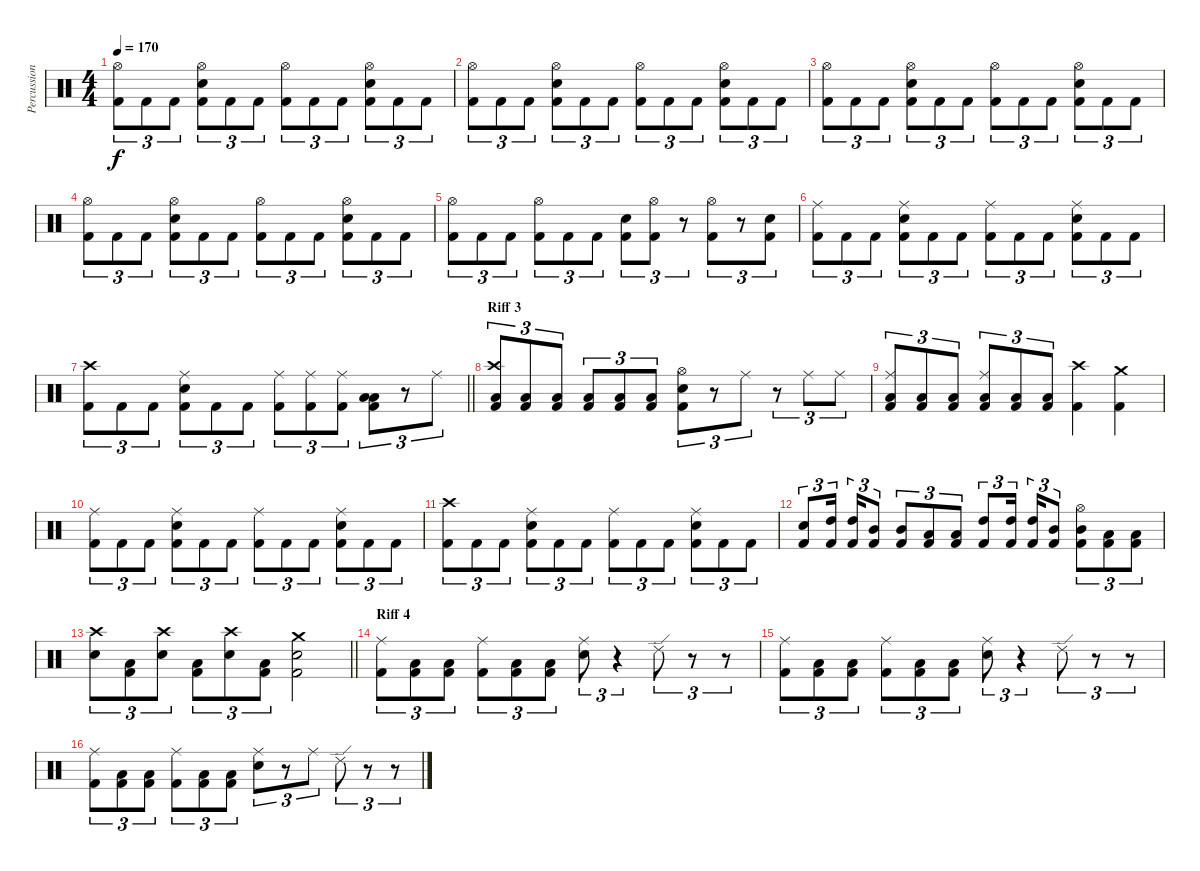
\track ("Percussions" "Percussion") {instrument percussion}
\staff {score}
\articulation defaults
\ts (4 4)
\tempo 170
\clef neutral
\ks c
("Hi-Hat (open)" "Kick (hit) 2").8{tu (3 2) dy f} "Kick (hit) 2".8{tu (3 2)} "Kick (hit) 2".8{tu (3 2)} ("Hi-Hat (open)" "Snare (hit) 2" "Kick (hit) 2").8{tu (3 2)} "Kick (hit) 2".8{tu (3 2)} "Kick (hit) 2".8{tu (3 2)} ("Hi-Hat (open)" "Kick (hit) 2").8{tu (3 2)} "Kick (hit) 2".8{tu (3 2)} "Kick (hit) 2".8{tu (3 2)} ("Hi-Hat (open)" "Snare (hit) 2" "Kick (hit) 2").8{tu (3 2)} "Kick (hit) 2".8{tu (3 2)} "Kick (hit) 2".8{tu (3 2)} |
("Hi-Hat (open)" "Kick (hit) 2").8{tu (3 2)} "Kick (hit) 2".8{tu (3 2)} "Kick (hit) 2".8{tu (3 2)} ("Hi-Hat (open)" "Snare (hit) 2" "Kick (hit) 2").8{tu (3 2)} "Kick (hit) 2".8{tu (3 2)} "Kick (hit) 2".8{tu (3 2)} ("Hi-Hat (open)" "Kick (hit) 2").8{tu (3 2)} "Kick (hit) 2".8{tu (3 2)} "Kick (hit) 2".8{tu (3 2)} ("Hi-Hat (open)" "Snare (hit) 2" "Kick (hit) 2").8{tu (3 2)} "Kick (hit) 2".8{tu (3 2)} "Kick (hit) 2".8{tu (3 2)} |
("Hi-Hat (open)" "Kick (hit) 2").8{tu (3 2)} "Kick (hit) 2".8{tu (3 2)} "Kick (hit) 2".8{tu (3 2)} ("Hi-Hat (open)" "Snare (hit) 2" "Kick (hit) 2").8{tu (3 2)} "Kick (hit) 2".8{tu (3 2)} "Kick (hit) 2".8{tu (3 2)} ("Hi-Hat (open)" "Kick (hit) 2").8{tu (3 2)} "Kick (hit) 2".8{tu (3 2)} "Kick (hit) 2".8{tu (3 2)} ("Hi-Hat (open)" "Snare (hit) 2" "Kick (hit) 2").8{tu (3 2)} "Kick (hit) 2".8{tu (3 2)} "Kick (hit) 2".8{tu (3 2)} |
("Hi-Hat (open)" "Kick (hit) 2").8{tu (3 2)} "Kick (hit) 2".8{tu (3 2)} "Kick (hit) 2".8{tu (3 2)} ("Hi-Hat (open)" "Snare (hit) 2" "Kick (hit) 2").8{tu (3 2)} "Kick (hit) 2".8{tu (3 2)} "Kick (hit) 2".8{tu (3 2)} ("Hi-Hat (open)" "Kick (hit) 2").8{tu (3 2)} "Kick (hit) 2".8{tu (3 2)} "Kick (hit) 2".8{tu (3 2)} ("Hi-Hat (open)" "Snare (hit) 2" "Kick (hit) 2").8{tu (3 2)} "Kick (hit) 2".8{tu (3 2)} "Kick (hit) 2".8{tu (3 2)} |
("Hi-Hat (open)" "Kick (hit) 2").8{tu (3 2)} "Kick (hit) 2".8{tu (3 2)} "Kick (hit) 2".8{tu (3 2)} ("Hi-Hat (open)" "Kick (hit) 2").8{tu (3 2)} "Kick (hit) 2".8{tu (3 2)} "Kick (hit) 2".8{tu (3 2)} ("Snare (hit) 2" "Kick (hit) 2").8{tu (3 2)} ("Hi-Hat (open)" "Kick (hit) 2").8{tu (3 2)} r.8{tu (3 2)} ("Hi-Hat (open)" "Kick (hit) 2").8{tu (3 2)} r.8{tu (3 2)} ("Snare (hit) 2" "Kick (hit) 2").8{tu (3 2)} |
("Ride (middle)" "Kick (hit) 2").8{tu (3 2)} "Kick (hit) 2".8{tu (3 2)} "Kick (hit) 2".8{tu (3 2)} ("Ride (middle)" "Snare (hit) 2" "Kick (hit) 2").8{tu (3 2)} "Kick (hit) 2".8{tu (3 2)} "Kick (hit) 2".8{tu (3 2)} ("Ride (middle)" "Kick (hit) 2").8{tu (3 2)} "Kick (hit) 2".8{tu (3 2)} "Kick (hit) 2".8{tu (3 2)} ("Ride (middle)" "Snare (hit) 2" "Kick (hit) 2").8{tu (3 2)} "Kick (hit) 2".8{tu (3 2)} "Kick (hit) 2".8{tu (3 2)} |
\barLineRight lightlight
("Crash high (hit)" "Kick (hit) 2").8{tu (3 2)} "Kick (hit) 2".8{tu (3 2)} "Kick (hit) 2".8{tu (3 2)} ("Ride (middle)" "Snare (hit) 2" "Kick (hit) 2").8{tu (3 2)} "Kick (hit) 2".8{tu (3 2)} "Kick (hit) 2".8{tu (3 2)} ("Ride (middle)" "Kick (hit) 2").8{tu (3 2)} ("Ride (middle)" "Kick (hit) 2").8{tu (3 2)} ("Ride (middle)" "Kick (hit) 2").8{tu (3 2)} ("Low Tom (hit)" "Low Floor Tom (hit)" "Kick (hit) 2").8{tu (3 2)} r.8{tu (3 2)} "Ride (middle)".8{tu (3 2)} |
\section ("" "Riff 3")
("Crash high (hit)" "Low Floor Tom (hit)" "Kick (hit) 2").8{tu (3 2)} ("Low Floor Tom (hit)" "Kick (hit) 2").8{tu (3 2)} ("Low Floor Tom (hit)" "Kick (hit) 2").8{tu (3 2)} ("Low Floor Tom (hit)" "Kick (hit) 2").8{tu (3 2)} ("Low Floor Tom (hit)" "Kick (hit) 2").8{tu (3 2)} ("Low Floor Tom (hit)" "Kick (hit) 2").8{tu (3 2)} ("Hi-Hat (open)" "Snare (hit) 2" "Kick (hit) 2").8{tu (3 2)} r.8{tu (3 2)} "Ride (middle)".8{tu (3 2)} r.8{tu (3 2)} "Ride (middle)".8{tu (3 2)} "Ride (middle)".8{tu (3 2)} |
("Ride (middle)" "Low Floor Tom (hit)" "Kick (hit) 2").8{tu (3 2)} ("Low Floor Tom (hit)" "Kick (hit) 2").8{tu (3 2)} ("Low Floor Tom (hit)" "Kick (hit) 2").8{tu (3 2)} ("Ride (middle)" "Low Floor Tom (hit)" "Kick (hit) 2").8{tu (3 2)} ("Low Floor Tom (hit)" "Kick (hit) 2").8{tu (3 2)} ("Low Floor Tom (hit)" "Kick (hit) 2").8{tu (3 2)} ("Crash high (hit)" "Kick (hit) 2").4 ("Crash medium (hit)" "Kick (hit) 2").4 |
("Ride (middle)" "Kick (hit) 2").8{tu (3 2)} "Kick (hit) 2".8{tu (3 2)} "Kick (hit) 2".8{tu (3 2)} ("Ride (middle)" "Snare (hit) 2" "Kick (hit) 2").8{tu (3 2)} "Kick (hit) 2".8{tu (3 2)} "Kick (hit) 2".8{tu (3 2)} ("Ride (middle)" "Kick (hit) 2").8{tu (3 2)} "Kick (hit) 2".8{tu (3 2)} "Kick (hit) 2".8{tu (3 2)} ("Ride (middle)" "Snare (hit) 2" "Kick (hit) 2").8{tu (3 2)} "Kick (hit) 2".8{tu (3 2)} "Kick (hit) 2".8{tu (3 2)} |
("Crash high (hit)" "Kick (hit) 2").8{tu (3 2)} "Kick (hit) 2".8{tu (3 2)} "Kick (hit) 2".8{tu (3 2)} ("Ride (middle)" "Snare (hit) 2" "Kick (hit) 2").8{tu (3 2)} "Kick (hit) 2".8{tu (3 2)} "Kick (hit) 2".8{tu (3 2)} ("Ride (middle)" "Kick (hit) 2").8{tu (3 2)} "Kick (hit) 2".8{tu (3 2)} "Kick (hit) 2".8{tu (3 2)} ("Ride (middle)" "Snare (hit) 2" "Kick (hit) 2").8{tu (3 2)} "Kick (hit) 2".8{tu (3 2)} "Kick (hit) 2".8{tu (3 2)} |
("Snare (hit) 2" "Kick (hit) 2").8{tu (3 2)} ("High Tom (hit)" "Kick (hit) 2").16{tu (3 2)} ("High Tom (hit)" "Kick (hit) 2").16{tu (3 2)} ("Mid Tom (hit)" "Kick (hit) 2").8{tu (3 2)} ("Mid Tom (hit)" "Kick (hit) 2").8{tu (3 2)} ("Low Tom (hit)" "Kick (hit) 2").8{tu (3 2)} ("Low Tom (hit)" "Kick (hit) 2").8{tu (3 2)} ("High Tom (hit)" "Kick (hit) 2").8{tu (3 2)} ("High Tom (hit)" "Kick (hit) 2").16{tu (3 2)} ("High Tom (hit)" "Kick (hit) 2").16{tu (3 2)} ("Mid Tom (hit)" "Kick (hit) 2").8{tu (3 2)} ("Hi-Hat (open)" "Mid Tom (hit)" "Kick (hit) 2").8{tu (3 2)} ("Low Tom (hit)" "Kick (hit) 2").8{tu (3 2)} ("Low Tom (hit)" "Kick (hit) 2").8{tu (3 2)} |
\barLineRight lightlight
("Crash high (hit)" "Snare (hit) 2").8{tu (3 2)} ("Low Floor Tom (hit)" "Kick (hit) 2").8{tu (3 2)} ("Crash high (hit)" "Snare (hit) 2").8{tu (3 2)} ("Low Floor Tom (hit)" "Kick (hit) 2").8{tu (3 2)} ("Crash high (hit)" "Snare (hit) 2").8{tu (3 2)} ("Low Floor Tom (hit)" "Kick (hit) 2").8{tu (3 2)} ("Crash medium (hit)" "Snare (hit) 2" "Kick (hit) 2").2 |
\section ("" "Riff 4")
("Ride (middle)" "Kick (hit) 2").8{tu (3 2)} ("Low Floor Tom (hit)" "Kick (hit) 2").8{tu (3 2)} ("Low Floor Tom (hit)" "Kick (hit) 2").8{tu (3 2)} ("Ride (middle)" "Kick (hit) 2").8{tu (3 2)} ("Low Floor Tom (hit)" "Kick (hit) 2").8{tu (3 2)} ("Low Floor Tom (hit)" "Kick (hit) 2").8{tu (3 2)} ("Ride (middle)" "Snare (hit) 2").8{tu (3 2)} r.4{tu (3 2)} "Ride (edge) 2".8{tu (3 2)} r.8{tu (3 2)} r.8{tu (3 2)} |
("Ride (middle)" "Kick (hit) 2").8{tu (3 2)} ("Low Floor Tom (hit)" "Kick (hit) 2").8{tu (3 2)} ("Low Floor Tom (hit)" "Kick (hit) 2").8{tu (3 2)} ("Ride (middle)" "Kick (hit) 2").8{tu (3 2)} ("Low Floor Tom (hit)" "Kick (hit) 2").8{tu (3 2)} ("Low Floor Tom (hit)" "Kick (hit) 2").8{tu (3 2)} ("Ride (middle)" "Snare (hit) 2").8{tu (3 2)} r.4{tu (3 2)} "Ride (edge) 2".8{tu (3 2)} r.8{tu (3 2)} r.8{tu (3 2)} |
("Ride (middle)" "Kick (hit) 2").8{tu (3 2)} ("Low Floor Tom (hit)" "Kick (hit) 2").8{tu (3 2)} ("Low Floor Tom (hit)" "Kick (hit) 2").8{tu (3 2)} ("Ride (middle)" "Kick (hit) 2").8{tu (3 2)} ("Low Floor Tom (hit)" "Kick (hit) 2").8{tu (3 2)} ("Low Floor Tom (hit)" "Kick (hit) 2").8{tu (3 2)} ("Ride (middle)" "Snare (hit) 2").8{tu (3 2)} r.8{tu (3 2)} "Ride (middle)".8{tu (3 2)} "Ride (edge) 2".8{tu (3 2)} r.8{tu (3 2)} r.8{tu (3 2)}
